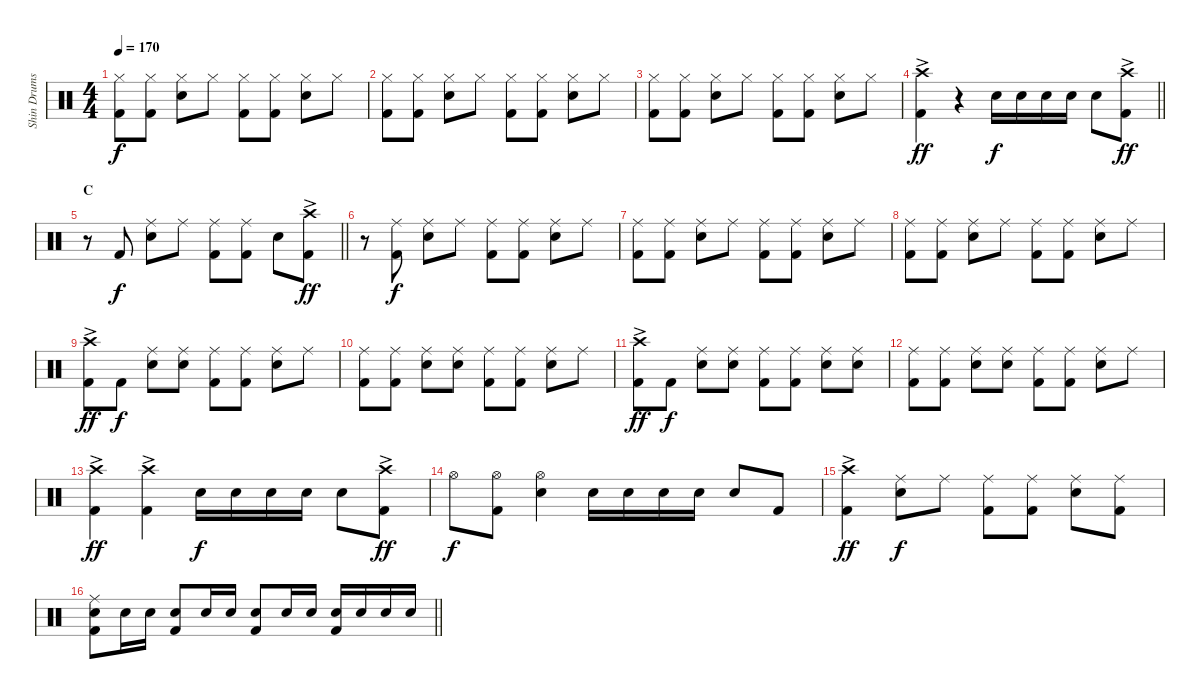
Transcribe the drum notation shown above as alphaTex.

\track ("Shin Drums" "Shin Drums") {instrument percussion}
\staff {score}
\articulation defaults
\ts (4 4)
\tempo 170
\clef neutral
\ks c
("Hi-Hat (closed)" "Kick (hit) 2").8{dy f} ("Hi-Hat (closed)" "Kick (hit) 2").8 ("Hi-Hat (closed)" "Snare (hit) 2").8 "Hi-Hat (closed)".8 ("Hi-Hat (closed)" "Kick (hit) 2").8 ("Hi-Hat (closed)" "Kick (hit) 2").8 ("Hi-Hat (closed)" "Snare (hit) 2").8 "Hi-Hat (closed)".8 |
("Hi-Hat (closed)" "Kick (hit) 2").8 ("Hi-Hat (closed)" "Kick (hit) 2").8 ("Hi-Hat (closed)" "Snare (hit) 2").8 "Hi-Hat (closed)".8 ("Hi-Hat (closed)" "Kick (hit) 2").8 ("Hi-Hat (closed)" "Kick (hit) 2").8 ("Hi-Hat (closed)" "Snare (hit) 2").8 "Hi-Hat (closed)".8 |
("Hi-Hat (closed)" "Kick (hit) 2").8 ("Hi-Hat (closed)" "Kick (hit) 2").8 ("Hi-Hat (closed)" "Snare (hit) 2").8 "Hi-Hat (closed)".8 ("Hi-Hat (closed)" "Kick (hit) 2").8 ("Hi-Hat (closed)" "Kick (hit) 2").8 ("Hi-Hat (closed)" "Snare (hit) 2").8 "Hi-Hat (closed)".8 |
\barLineRight lightlight
("Crash high (hit)"{ac} "Kick (hit) 2").4{dy ff} r.4 "Snare (hit) 2".16{dy f} "Snare (hit) 2".16 "Snare (hit) 2".16 "Snare (hit) 2".16 "Snare (hit) 2".8 ("Crash high (hit)"{ac} "Kick (hit) 2").8{dy ff} |
\section ("" "C")
\barLineRight lightlight
r.8 "Kick (hit) 2".8{dy f} ("Ride (middle)" "Snare (hit) 2").8 "Ride (middle)".8 ("Ride (middle)" "Kick (hit) 2").8 ("Ride (middle)" "Kick (hit) 2").8 "Snare (hit) 2".8 ("Crash high (hit)"{ac} "Kick (hit) 2").8{dy ff} |
\section ("" "")
r.8 ("Ride (middle)" "Kick (hit) 2").8{dy f} ("Ride (middle)" "Snare (hit) 2").8 "Ride (middle)".8 ("Ride (middle)" "Kick (hit) 2").8 ("Ride (middle)" "Kick (hit) 2").8 ("Ride (middle)" "Snare (hit) 2").8 "Ride (middle)".8 |
("Ride (middle)" "Kick (hit) 2").8 ("Ride (middle)" "Kick (hit) 2").8 ("Ride (middle)" "Snare (hit) 2").8 "Ride (middle)".8 ("Ride (middle)" "Kick (hit) 2").8 ("Ride (middle)" "Kick (hit) 2").8 ("Ride (middle)" "Snare (hit) 2").8 "Ride (middle)".8 |
("Ride (middle)" "Kick (hit) 2").8 ("Ride (middle)" "Kick (hit) 2").8 ("Ride (middle)" "Snare (hit) 2").8 "Ride (middle)".8 ("Ride (middle)" "Kick (hit) 2").8 ("Ride (middle)" "Kick (hit) 2").8 ("Ride (middle)" "Snare (hit) 2").8 "Ride (middle)".8 |
("Crash high (hit)"{ac} "Kick (hit) 2").8{dy ff} "Kick (hit) 2".8{dy f} ("Ride (middle)" "Snare (hit) 2").8 ("Ride (middle)" "Snare (hit) 2").8 ("Ride (middle)" "Kick (hit) 2").8 ("Ride (middle)" "Kick (hit) 2").8 ("Ride (middle)" "Snare (hit) 2").8 "Ride (middle)".8 |
("Ride (middle)" "Kick (hit) 2").8 ("Ride (middle)" "Kick (hit) 2").8 ("Ride (middle)" "Snare (hit) 2").8 ("Ride (middle)" "Snare (hit) 2").8 ("Ride (middle)" "Kick (hit) 2").8 ("Ride (middle)" "Kick (hit) 2").8 ("Ride (middle)" "Snare (hit) 2").8 "Ride (middle)".8 |
("Crash high (hit)"{ac} "Kick (hit) 2").8{dy ff} "Kick (hit) 2".8{dy f} ("Ride (middle)" "Snare (hit) 2").8 ("Ride (middle)" "Snare (hit) 2").8 ("Ride (middle)" "Kick (hit) 2").8 ("Ride (middle)" "Kick (hit) 2").8 ("Ride (middle)" "Snare (hit) 2").8 ("Ride (middle)" "Snare (hit) 2").8 |
("Ride (middle)" "Kick (hit) 2").8 ("Ride (middle)" "Kick (hit) 2").8 ("Ride (middle)" "Snare (hit) 2").8 ("Ride (middle)" "Snare (hit) 2").8 ("Ride (middle)" "Kick (hit) 2").8 ("Ride (middle)" "Kick (hit) 2").8 ("Ride (middle)" "Snare (hit) 2").8 "Ride (middle)".8 |
("Crash high (hit)"{ac} "Kick (hit) 2").4{dy ff} ("Crash high (hit)"{ac} "Kick (hit) 2").4 "Snare (hit) 2".16{dy f} "Snare (hit) 2".16 "Snare (hit) 2".16 "Snare (hit) 2".16 "Snare (hit) 2".8 ("Crash high (hit)"{ac} "Kick (hit) 2").8{dy ff} |
"Hi-Hat (open)".8{dy f} ("Hi-Hat (open)" "Kick (hit) 2").8 ("Hi-Hat (open)" "Snare (hit) 2").4 "Snare (hit) 2".16 "Snare (hit) 2".16 "Snare (hit) 2".16 "Snare (hit) 2".16 "Snare (hit) 2".8 "Kick (hit) 2".8 |
("Crash high (hit)"{ac} "Kick (hit) 2").4{dy ff} ("Ride (middle)" "Snare (hit) 2").8{dy f} "Ride (middle)".8 ("Ride (middle)" "Kick (hit) 2").8 ("Ride (middle)" "Kick (hit) 2").8 ("Ride (middle)" "Snare (hit) 2").8 ("Ride (middle)" "Kick (hit) 2").8 |
\barLineRight lightlight
("Ride (middle)" "Snare (hit) 2" "Kick (hit) 2").8 "Snare (hit) 2".16 "Snare (hit) 2".16 ("Snare (hit) 2" "Kick (hit) 2").8 "Snare (hit) 2".16 "Snare (hit) 2".16 ("Snare (hit) 2" "Kick (hit) 2").8 "Snare (hit) 2".16 "Snare (hit) 2".16 ("Snare (hit) 2" "Kick (hit) 2").16 "Snare (hit) 2".16 "Snare (hit) 2".16 "Snare (hit) 2".16
